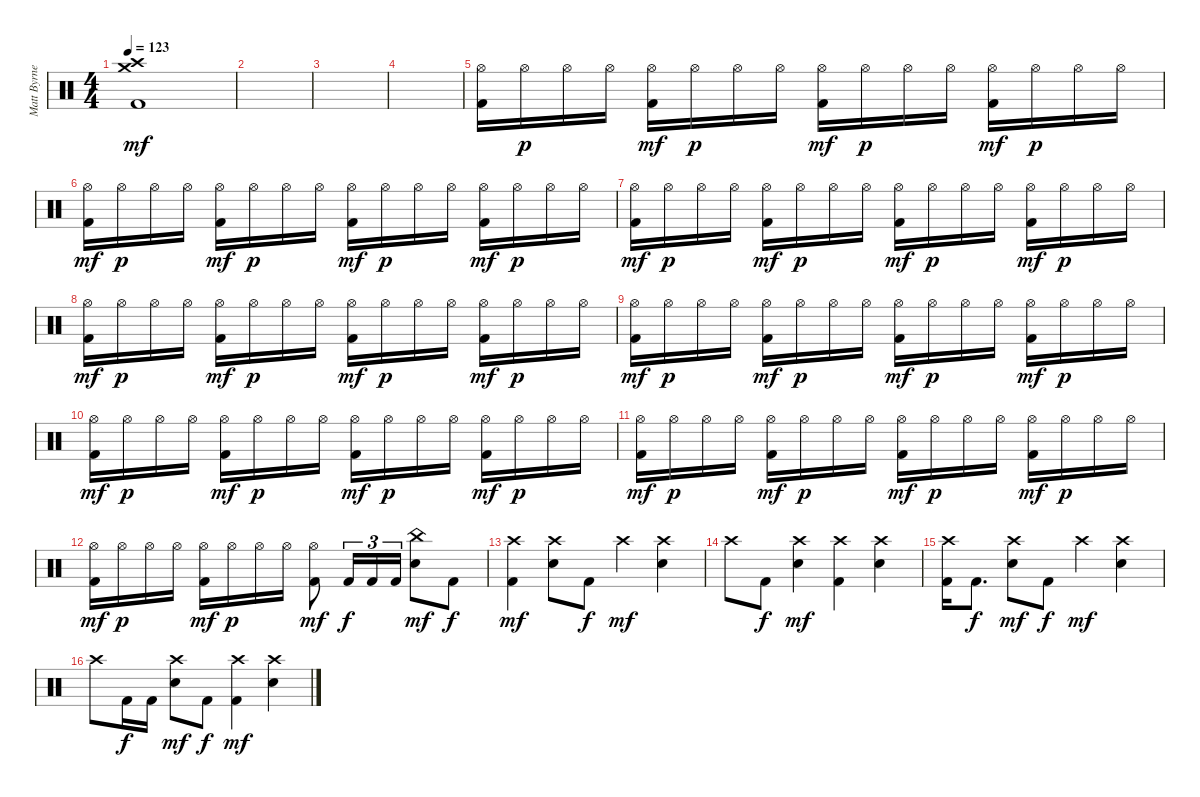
\track ("Matt Byrne" "Matt Byrne") {instrument percussion}
\staff {score}
\articulation defaults
\ts (4 4)
\tempo 123
\clef neutral
\ks c
("Crash high (hit)" "Crash medium (hit)" "Kick (hit) 2").1{dy mf} |
|
|
|
("Hi-Hat (open)" "Kick (hit) 2").16 "Hi-Hat (open)".16{dy p} "Hi-Hat (open)".16 "Hi-Hat (open)".16 ("Hi-Hat (open)" "Kick (hit) 2").16{dy mf} "Hi-Hat (open)".16{dy p} "Hi-Hat (open)".16 "Hi-Hat (open)".16 ("Hi-Hat (open)" "Kick (hit) 2").16{dy mf} "Hi-Hat (open)".16{dy p} "Hi-Hat (open)".16 "Hi-Hat (open)".16 ("Hi-Hat (open)" "Kick (hit) 2").16{dy mf} "Hi-Hat (open)".16{dy p} "Hi-Hat (open)".16 "Hi-Hat (open)".16 |
("Hi-Hat (open)" "Kick (hit) 2").16{dy mf} "Hi-Hat (open)".16{dy p} "Hi-Hat (open)".16 "Hi-Hat (open)".16 ("Hi-Hat (open)" "Kick (hit) 2").16{dy mf} "Hi-Hat (open)".16{dy p} "Hi-Hat (open)".16 "Hi-Hat (open)".16 ("Hi-Hat (open)" "Kick (hit) 2").16{dy mf} "Hi-Hat (open)".16{dy p} "Hi-Hat (open)".16 "Hi-Hat (open)".16 ("Hi-Hat (open)" "Kick (hit) 2").16{dy mf} "Hi-Hat (open)".16{dy p} "Hi-Hat (open)".16 "Hi-Hat (open)".16 |
("Hi-Hat (open)" "Kick (hit) 2").16{dy mf} "Hi-Hat (open)".16{dy p} "Hi-Hat (open)".16 "Hi-Hat (open)".16 ("Hi-Hat (open)" "Kick (hit) 2").16{dy mf} "Hi-Hat (open)".16{dy p} "Hi-Hat (open)".16 "Hi-Hat (open)".16 ("Hi-Hat (open)" "Kick (hit) 2").16{dy mf} "Hi-Hat (open)".16{dy p} "Hi-Hat (open)".16 "Hi-Hat (open)".16 ("Hi-Hat (open)" "Kick (hit) 2").16{dy mf} "Hi-Hat (open)".16{dy p} "Hi-Hat (open)".16 "Hi-Hat (open)".16 |
("Hi-Hat (open)" "Kick (hit) 2").16{dy mf} "Hi-Hat (open)".16{dy p} "Hi-Hat (open)".16 "Hi-Hat (open)".16 ("Hi-Hat (open)" "Kick (hit) 2").16{dy mf} "Hi-Hat (open)".16{dy p} "Hi-Hat (open)".16 "Hi-Hat (open)".16 ("Hi-Hat (open)" "Kick (hit) 2").16{dy mf} "Hi-Hat (open)".16{dy p} "Hi-Hat (open)".16 "Hi-Hat (open)".16 ("Hi-Hat (open)" "Kick (hit) 2").16{dy mf} "Hi-Hat (open)".16{dy p} "Hi-Hat (open)".16 "Hi-Hat (open)".16 |
("Hi-Hat (open)" "Kick (hit) 2").16{dy mf} "Hi-Hat (open)".16{dy p} "Hi-Hat (open)".16 "Hi-Hat (open)".16 ("Hi-Hat (open)" "Kick (hit) 2").16{dy mf} "Hi-Hat (open)".16{dy p} "Hi-Hat (open)".16 "Hi-Hat (open)".16 ("Hi-Hat (open)" "Kick (hit) 2").16{dy mf} "Hi-Hat (open)".16{dy p} "Hi-Hat (open)".16 "Hi-Hat (open)".16 ("Hi-Hat (open)" "Kick (hit) 2").16{dy mf} "Hi-Hat (open)".16{dy p} "Hi-Hat (open)".16 "Hi-Hat (open)".16 |
("Hi-Hat (open)" "Kick (hit) 2").16{dy mf} "Hi-Hat (open)".16{dy p} "Hi-Hat (open)".16 "Hi-Hat (open)".16 ("Hi-Hat (open)" "Kick (hit) 2").16{dy mf} "Hi-Hat (open)".16{dy p} "Hi-Hat (open)".16 "Hi-Hat (open)".16 ("Hi-Hat (open)" "Kick (hit) 2").16{dy mf} "Hi-Hat (open)".16{dy p} "Hi-Hat (open)".16 "Hi-Hat (open)".16 ("Hi-Hat (open)" "Kick (hit) 2").16{dy mf} "Hi-Hat (open)".16{dy p} "Hi-Hat (open)".16 "Hi-Hat (open)".16 |
("Hi-Hat (open)" "Kick (hit) 2").16{dy mf} "Hi-Hat (open)".16{dy p} "Hi-Hat (open)".16 "Hi-Hat (open)".16 ("Hi-Hat (open)" "Kick (hit) 2").16{dy mf} "Hi-Hat (open)".16{dy p} "Hi-Hat (open)".16 "Hi-Hat (open)".16 ("Hi-Hat (open)" "Kick (hit) 2").16{dy mf} "Hi-Hat (open)".16{dy p} "Hi-Hat (open)".16 "Hi-Hat (open)".16 ("Hi-Hat (open)" "Kick (hit) 2").16{dy mf} "Hi-Hat (open)".16{dy p} "Hi-Hat (open)".16 "Hi-Hat (open)".16 |
("Hi-Hat (open)" "Kick (hit) 2").16{dy mf} "Hi-Hat (open)".16{dy p} "Hi-Hat (open)".16 "Hi-Hat (open)".16 ("Hi-Hat (open)" "Kick (hit) 2").16{dy mf} "Hi-Hat (open)".16{dy p} "Hi-Hat (open)".16 "Hi-Hat (open)".16 ("Hi-Hat (open)" "Kick (hit) 2").8{dy mf} "Kick (hit) 2".16{tu (3 2) dy f} "Kick (hit) 2".16{tu (3 2)} "Kick (hit) 2".16{tu (3 2)} ("China (hit)" "Electric Snare (hit)").8{dy mf} "Kick (hit) 2".8{dy f} |
("Crash high (hit)" "Kick (hit) 2").4{dy mf} ("Crash high (hit)" "Electric Snare (hit)").8 "Kick (hit) 2".8{dy f} "Crash high (hit)".4{dy mf} ("Crash high (hit)" "Electric Snare (hit)").4 |
"Crash high (hit)".8 "Kick (hit) 2".8{dy f} ("Crash high (hit)" "Electric Snare (hit)").4{dy mf} ("Crash high (hit)" "Kick (hit) 2").4 ("Crash high (hit)" "Electric Snare (hit)").4 |
("Crash high (hit)" "Kick (hit) 2").16 "Kick (hit) 2".8{d dy f} ("Crash high (hit)" "Electric Snare (hit)").8{dy mf} "Kick (hit) 2".8{dy f} "Crash high (hit)".4{dy mf} ("Crash high (hit)" "Electric Snare (hit)").4 |
"Crash high (hit)".8 "Kick (hit) 2".16{dy f} "Kick (hit) 2".16 ("Crash high (hit)" "Electric Snare (hit)").8{dy mf} "Kick (hit) 2".8{dy f} ("Crash high (hit)" "Kick (hit) 2").4{dy mf} ("Crash high (hit)" "Electric Snare (hit)").4
